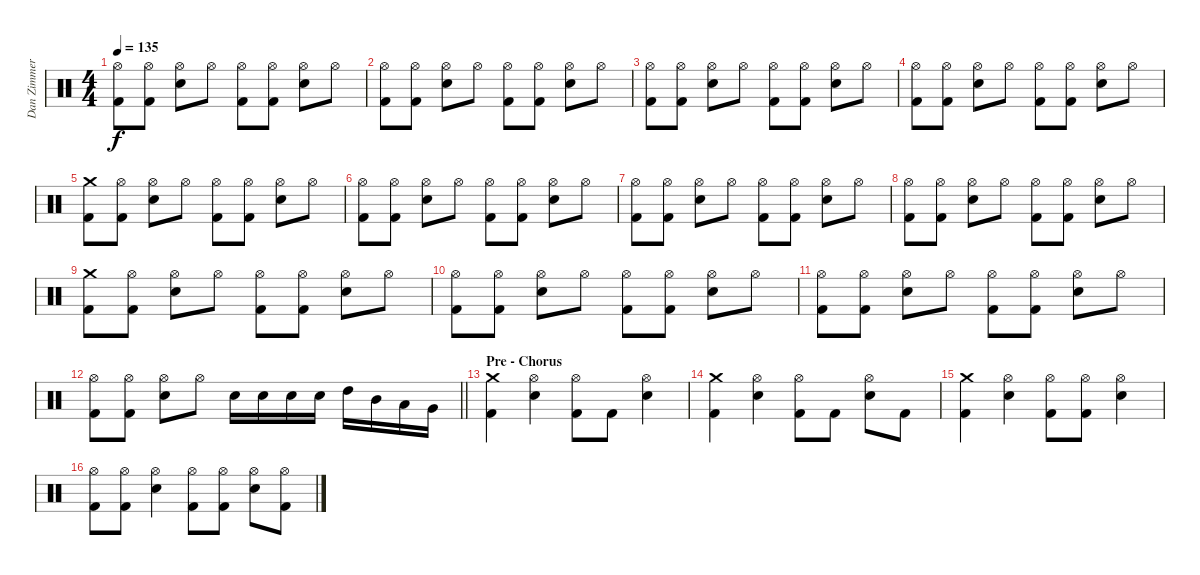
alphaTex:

\track ("Dan Zimmermann" "Dan Zimmer") {instrument percussion}
\staff {score}
\articulation defaults
\ts (4 4)
\tempo 135
\clef neutral
\ks c
("Hi-Hat (open)" "Kick (hit) 2").8{dy f} ("Hi-Hat (open)" "Kick (hit) 2").8 ("Hi-Hat (open)" "Electric Snare (hit)").8 "Hi-Hat (open)".8 ("Hi-Hat (open)" "Kick (hit) 2").8 ("Hi-Hat (open)" "Kick (hit) 2").8 ("Hi-Hat (open)" "Electric Snare (hit)").8 "Hi-Hat (open)".8 |
("Hi-Hat (open)" "Kick (hit) 2").8 ("Hi-Hat (open)" "Kick (hit) 2").8 ("Hi-Hat (open)" "Electric Snare (hit)").8 "Hi-Hat (open)".8 ("Hi-Hat (open)" "Kick (hit) 2").8 ("Hi-Hat (open)" "Kick (hit) 2").8 ("Hi-Hat (open)" "Electric Snare (hit)").8 "Hi-Hat (open)".8 |
("Hi-Hat (open)" "Kick (hit) 2").8 ("Hi-Hat (open)" "Kick (hit) 2").8 ("Hi-Hat (open)" "Electric Snare (hit)").8 "Hi-Hat (open)".8 ("Hi-Hat (open)" "Kick (hit) 2").8 ("Hi-Hat (open)" "Kick (hit) 2").8 ("Hi-Hat (open)" "Electric Snare (hit)").8 "Hi-Hat (open)".8 |
("Hi-Hat (open)" "Kick (hit) 2").8 ("Hi-Hat (open)" "Kick (hit) 2").8 ("Hi-Hat (open)" "Electric Snare (hit)").8 "Hi-Hat (open)".8 ("Hi-Hat (open)" "Kick (hit) 2").8 ("Hi-Hat (open)" "Kick (hit) 2").8 ("Hi-Hat (open)" "Electric Snare (hit)").8 "Hi-Hat (open)".8 |
("Crash medium (hit)" "Kick (hit) 2").8 ("Hi-Hat (open)" "Kick (hit) 2").8 ("Hi-Hat (open)" "Electric Snare (hit)").8 "Hi-Hat (open)".8 ("Hi-Hat (open)" "Kick (hit) 2").8 ("Hi-Hat (open)" "Kick (hit) 2").8 ("Hi-Hat (open)" "Electric Snare (hit)").8 "Hi-Hat (open)".8 |
("Hi-Hat (open)" "Kick (hit) 2").8 ("Hi-Hat (open)" "Kick (hit) 2").8 ("Hi-Hat (open)" "Electric Snare (hit)").8 "Hi-Hat (open)".8 ("Hi-Hat (open)" "Kick (hit) 2").8 ("Hi-Hat (open)" "Kick (hit) 2").8 ("Hi-Hat (open)" "Electric Snare (hit)").8 "Hi-Hat (open)".8 |
("Hi-Hat (open)" "Kick (hit) 2").8 ("Hi-Hat (open)" "Kick (hit) 2").8 ("Hi-Hat (open)" "Electric Snare (hit)").8 "Hi-Hat (open)".8 ("Hi-Hat (open)" "Kick (hit) 2").8 ("Hi-Hat (open)" "Kick (hit) 2").8 ("Hi-Hat (open)" "Electric Snare (hit)").8 "Hi-Hat (open)".8 |
("Hi-Hat (open)" "Kick (hit) 2").8 ("Hi-Hat (open)" "Kick (hit) 2").8 ("Hi-Hat (open)" "Electric Snare (hit)").8 "Hi-Hat (open)".8 ("Hi-Hat (open)" "Kick (hit) 2").8 ("Hi-Hat (open)" "Kick (hit) 2").8 ("Hi-Hat (open)" "Electric Snare (hit)").8 "Hi-Hat (open)".8 |
("Crash medium (hit)" "Kick (hit) 2").8 ("Hi-Hat (open)" "Kick (hit) 2").8 ("Hi-Hat (open)" "Electric Snare (hit)").8 "Hi-Hat (open)".8 ("Hi-Hat (open)" "Kick (hit) 2").8 ("Hi-Hat (open)" "Kick (hit) 2").8 ("Hi-Hat (open)" "Electric Snare (hit)").8 "Hi-Hat (open)".8 |
("Hi-Hat (open)" "Kick (hit) 2").8 ("Hi-Hat (open)" "Kick (hit) 2").8 ("Hi-Hat (open)" "Electric Snare (hit)").8 "Hi-Hat (open)".8 ("Hi-Hat (open)" "Kick (hit) 2").8 ("Hi-Hat (open)" "Kick (hit) 2").8 ("Hi-Hat (open)" "Electric Snare (hit)").8 "Hi-Hat (open)".8 |
("Hi-Hat (open)" "Kick (hit) 2").8 ("Hi-Hat (open)" "Kick (hit) 2").8 ("Hi-Hat (open)" "Electric Snare (hit)").8 "Hi-Hat (open)".8 ("Hi-Hat (open)" "Kick (hit) 2").8 ("Hi-Hat (open)" "Kick (hit) 2").8 ("Hi-Hat (open)" "Electric Snare (hit)").8 "Hi-Hat (open)".8 |
\barLineRight lightlight
("Hi-Hat (open)" "Kick (hit) 2").8 ("Hi-Hat (open)" "Kick (hit) 2").8 ("Hi-Hat (open)" "Electric Snare (hit)").8 "Hi-Hat (open)".8 "Electric Snare (hit)".16 "Electric Snare (hit)".16 "Electric Snare (hit)".16 "Electric Snare (hit)".16 "High Tom (hit)".16 "Mid Tom (hit)".16 "Low Tom (hit)".16 "Very Low Tom (hit)".16 |
\section ("" "Pre - Chorus")
("Crash medium (hit)" "Kick (hit) 2").4 ("Hi-Hat (open)" "Electric Snare (hit)").4 ("Hi-Hat (open)" "Kick (hit) 2").8 "Kick (hit) 2".8 ("Hi-Hat (open)" "Electric Snare (hit)").4 |
("Crash medium (hit)" "Kick (hit) 2").4 ("Hi-Hat (open)" "Electric Snare (hit)").4 ("Hi-Hat (open)" "Kick (hit) 2").8 "Kick (hit) 2".8 ("Hi-Hat (open)" "Electric Snare (hit)").8 "Kick (hit) 2".8 |
("Crash medium (hit)" "Kick (hit) 2").4 ("Hi-Hat (open)" "Electric Snare (hit)").4 ("Hi-Hat (open)" "Kick (hit) 2").8 ("Hi-Hat (open)" "Kick (hit) 2").8 ("Hi-Hat (open)" "Electric Snare (hit)").4 |
("Hi-Hat (open)" "Kick (hit) 2").8 ("Hi-Hat (open)" "Kick (hit) 2").8 ("Hi-Hat (open)" "Electric Snare (hit)").4 ("Hi-Hat (open)" "Kick (hit) 2").8 ("Hi-Hat (open)" "Kick (hit) 2").8 ("Hi-Hat (open)" "Electric Snare (hit)").8 ("Hi-Hat (open)" "Kick (hit) 2").8
